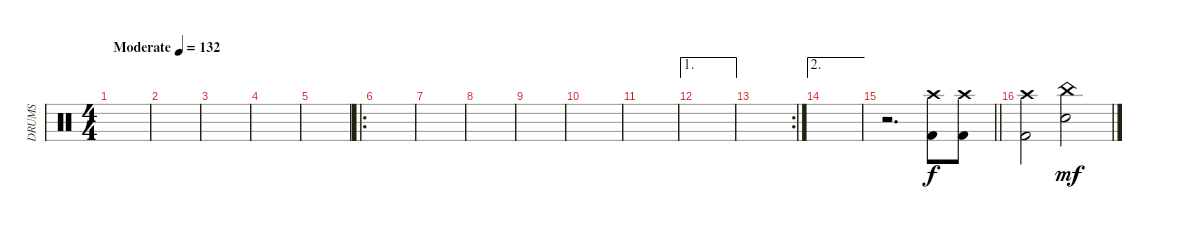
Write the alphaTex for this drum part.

\track ("DRUMS" "DRUMS") {instrument percussion}
\staff {score}
\articulation defaults
\ts (4 4)
\tempo (132 "Moderate")
\clef neutral
\ks c
|
|
|
|
|
\ro
|
|
|
|
|
|
\ae 1
|
\rc 2
|
\ae 2
|
\barLineRight lightlight
r.2{d} ("Crash high (hit)" "Kick (hit) 2").8 ("Crash high (hit)" "Kick (hit) 2").8 |
("Crash high (hit)" "Kick (hit) 2").2 ("China (hit)" "Snare (hit) 2").2{dy mf}
